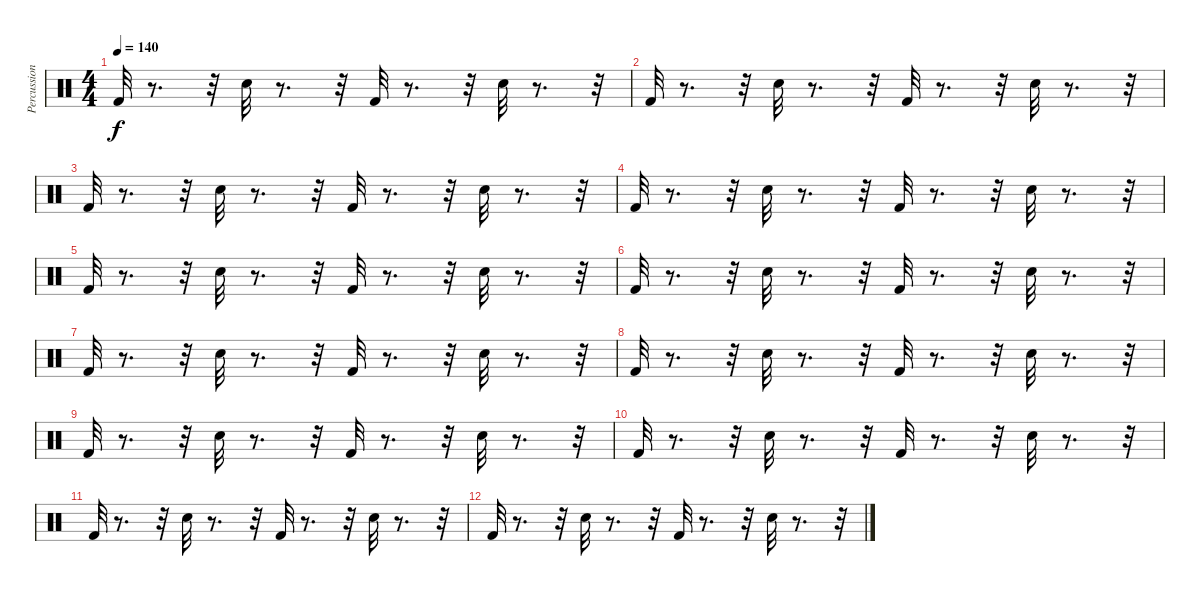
\track ("Percussion 2" "Percussion") {instrument percussion}
\staff {score}
\articulation defaults
\ts (4 4)
\tempo 140
\clef neutral
\ks c "Kick (hit) 2".32{dy f}
r.8{d} r.32 "Snare (hit) 2".32 r.8{d} r.32 "Kick (hit) 2".32 r.8{d} r.32 "Snare (hit) 2".32 r.8{d} r.32 |
"Kick (hit) 2".32 r.8{d} r.32 "Snare (hit) 2".32 r.8{d} r.32 "Kick (hit) 2".32 r.8{d} r.32 "Snare (hit) 2".32 r.8{d} r.32 |
"Kick (hit) 2".32 r.8{d} r.32 "Snare (hit) 2".32 r.8{d} r.32 "Kick (hit) 2".32 r.8{d} r.32 "Snare (hit) 2".32 r.8{d} r.32 |
"Kick (hit) 2".32 r.8{d} r.32 "Snare (hit) 2".32 r.8{d} r.32 "Kick (hit) 2".32 r.8{d} r.32 "Snare (hit) 2".32 r.8{d} r.32 |
"Kick (hit) 2".32 r.8{d} r.32 "Snare (hit) 2".32 r.8{d} r.32 "Kick (hit) 2".32 r.8{d} r.32 "Snare (hit) 2".32 r.8{d} r.32 |
"Kick (hit) 2".32 r.8{d} r.32 "Snare (hit) 2".32 r.8{d} r.32 "Kick (hit) 2".32 r.8{d} r.32 "Snare (hit) 2".32 r.8{d} r.32 |
"Kick (hit) 2".32 r.8{d} r.32 "Snare (hit) 2".32 r.8{d} r.32 "Kick (hit) 2".32 r.8{d} r.32 "Snare (hit) 2".32 r.8{d} r.32 |
"Kick (hit) 2".32 r.8{d} r.32 "Snare (hit) 2".32 r.8{d} r.32 "Kick (hit) 2".32 r.8{d} r.32 "Snare (hit) 2".32 r.8{d} r.32 |
"Kick (hit) 2".32 r.8{d} r.32 "Snare (hit) 2".32 r.8{d} r.32 "Kick (hit) 2".32 r.8{d} r.32 "Snare (hit) 2".32 r.8{d} r.32 |
"Kick (hit) 2".32 r.8{d} r.32 "Snare (hit) 2".32 r.8{d} r.32 "Kick (hit) 2".32 r.8{d} r.32 "Snare (hit) 2".32 r.8{d} r.32 |
"Kick (hit) 2".32 r.8{d} r.32 "Snare (hit) 2".32 r.8{d} r.32 "Kick (hit) 2".32 r.8{d} r.32 "Snare (hit) 2".32 r.8{d} r.32 |
"Kick (hit) 2".32 r.8{d} r.32 "Snare (hit) 2".32 r.8{d} r.32 "Kick (hit) 2".32 r.8{d} r.32 "Snare (hit) 2".32 r.8{d} r.32
